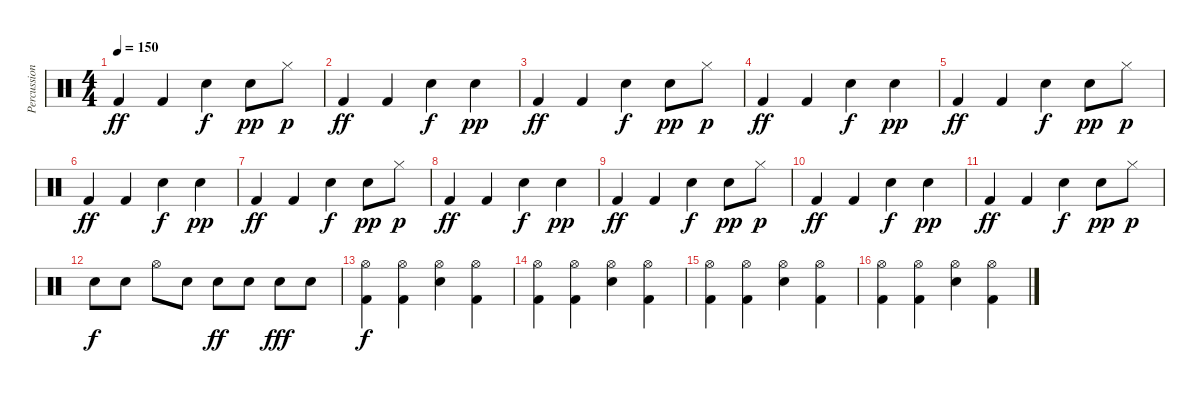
\track ("Percussions" "Percussion") {instrument percussion}
\staff {score}
\articulation defaults
\ts (4 4)
\tempo 150
\clef neutral
\ks c "Kick (hit) 2".4{dy ff} "Kick (hit) 2".4 "Snare (hit) 2".4{dy f} "Snare (hit) 2".8{dy pp} "Hi-Hat (closed)".8{dy p}
|
"Kick (hit) 2".4{dy ff} "Kick (hit) 2".4 "Snare (hit) 2".4{dy f} "Snare (hit) 2".4{dy pp} |
"Kick (hit) 2".4{dy ff} "Kick (hit) 2".4 "Snare (hit) 2".4{dy f} "Snare (hit) 2".8{dy pp} "Hi-Hat (closed)".8{dy p} |
"Kick (hit) 2".4{dy ff} "Kick (hit) 2".4 "Snare (hit) 2".4{dy f} "Snare (hit) 2".4{dy pp} |
"Kick (hit) 2".4{dy ff} "Kick (hit) 2".4 "Snare (hit) 2".4{dy f} "Snare (hit) 2".8{dy pp} "Hi-Hat (closed)".8{dy p} |
"Kick (hit) 2".4{dy ff} "Kick (hit) 2".4 "Snare (hit) 2".4{dy f} "Snare (hit) 2".4{dy pp} |
"Kick (hit) 2".4{dy ff} "Kick (hit) 2".4 "Snare (hit) 2".4{dy f} "Snare (hit) 2".8{dy pp} "Hi-Hat (closed)".8{dy p} |
"Kick (hit) 2".4{dy ff} "Kick (hit) 2".4 "Snare (hit) 2".4{dy f} "Snare (hit) 2".4{dy pp} |
"Kick (hit) 2".4{dy ff} "Kick (hit) 2".4 "Snare (hit) 2".4{dy f} "Snare (hit) 2".8{dy pp} "Hi-Hat (closed)".8{dy p} |
"Kick (hit) 2".4{dy ff} "Kick (hit) 2".4 "Snare (hit) 2".4{dy f} "Snare (hit) 2".4{dy pp} |
"Kick (hit) 2".4{dy ff} "Kick (hit) 2".4 "Snare (hit) 2".4{dy f} "Snare (hit) 2".8{dy pp} "Hi-Hat (closed)".8{dy p} |
"Electric Snare (hit)".8{dy f} "Electric Snare (hit)".8 "Hi-Hat (open)".8 "Electric Snare (hit)".8 "Electric Snare (hit)".8{dy ff} "Electric Snare (hit)".8 "Electric Snare (hit)".8{dy fff} "Electric Snare (hit)".8 |
("Hi-Hat (open)" "Kick (hit) 2").4{dy f} ("Hi-Hat (open)" "Kick (hit) 2").4 ("Hi-Hat (open)" "Electric Snare (hit)").4 ("Hi-Hat (open)" "Kick (hit) 2").4 |
("Hi-Hat (open)" "Kick (hit) 2").4 ("Hi-Hat (open)" "Kick (hit) 2").4 ("Hi-Hat (open)" "Electric Snare (hit)").4 ("Hi-Hat (open)" "Kick (hit) 2").4 |
("Hi-Hat (open)" "Kick (hit) 2").4 ("Hi-Hat (open)" "Kick (hit) 2").4 ("Hi-Hat (open)" "Electric Snare (hit)").4 ("Hi-Hat (open)" "Kick (hit) 2").4 |
("Hi-Hat (open)" "Kick (hit) 2").4 ("Hi-Hat (open)" "Kick (hit) 2").4 ("Hi-Hat (open)" "Electric Snare (hit)").4 ("Hi-Hat (open)" "Kick (hit) 2").4
